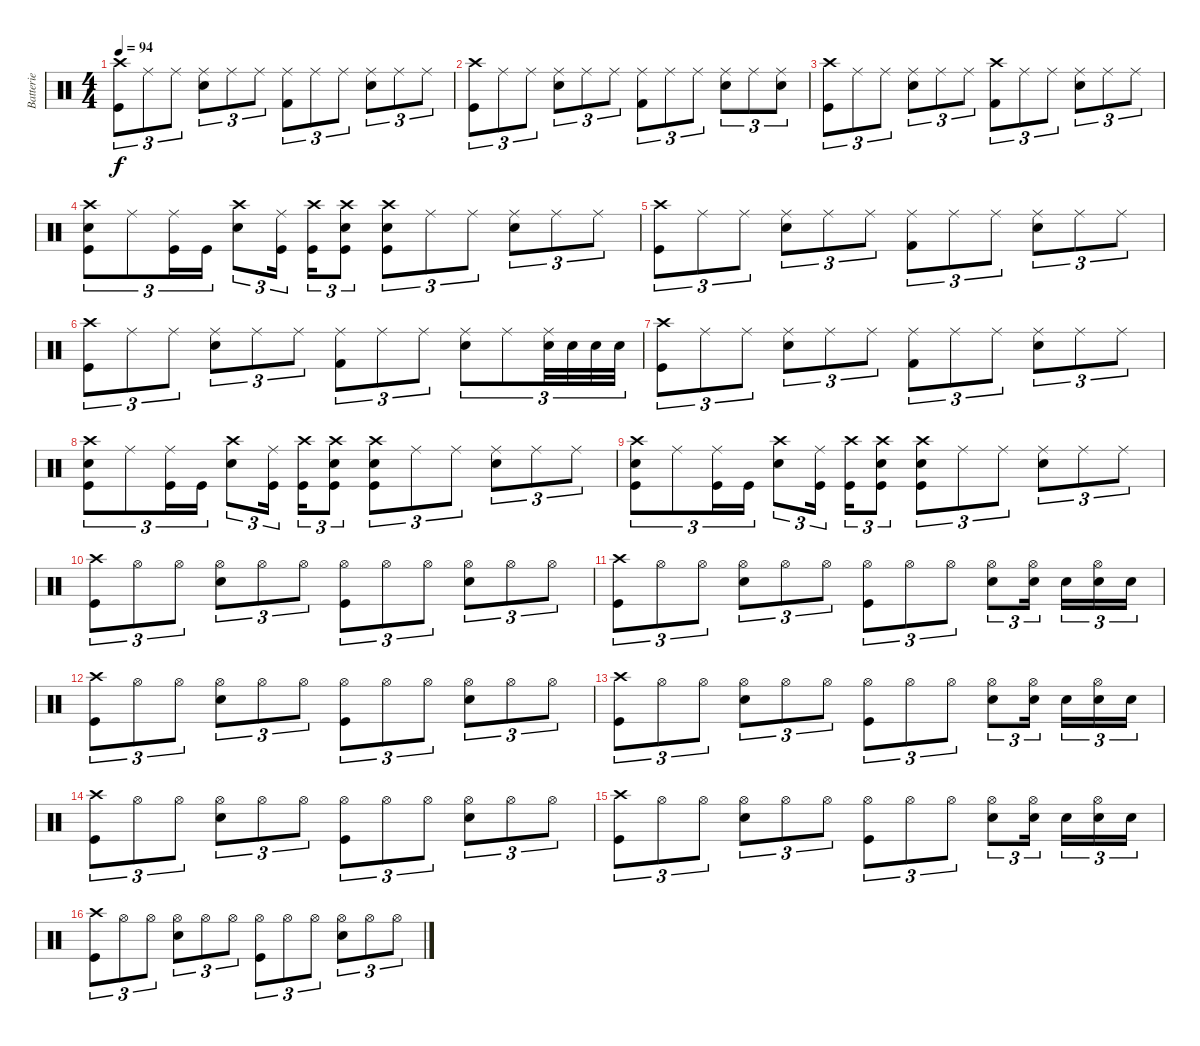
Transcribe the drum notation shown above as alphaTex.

\track ("Batterie" "Batterie") {instrument percussion}
\staff {score}
\articulation defaults
\ts (4 4)
\tempo 94
\clef neutral
\ks c
("Crash high (hit)" "Kick (hit)").8{tu (3 2) dy f} "Ride (middle)".8{tu (3 2)} "Ride (middle)".8{tu (3 2)} ("Ride (middle)" "Snare (hit) 2").8{tu (3 2)} "Ride (middle)".8{tu (3 2)} "Ride (middle)".8{tu (3 2)} ("Ride (middle)" "Kick (hit) 2").8{tu (3 2)} "Ride (middle)".8{tu (3 2)} "Ride (middle)".8{tu (3 2)} ("Ride (middle)" "Snare (hit) 2").8{tu (3 2)} "Ride (middle)".8{tu (3 2)} "Ride (middle)".8{tu (3 2)} |
("Crash high (hit)" "Kick (hit)").8{tu (3 2)} "Ride (middle)".8{tu (3 2)} "Ride (middle)".8{tu (3 2)} ("Ride (middle)" "Snare (hit) 2").8{tu (3 2)} "Ride (middle)".8{tu (3 2)} "Ride (middle)".8{tu (3 2)} ("Ride (middle)" "Kick (hit) 2").8{tu (3 2)} "Ride (middle)".8{tu (3 2)} "Ride (middle)".8{tu (3 2)} ("Ride (middle)" "Snare (hit) 2").8{tu (3 2)} "Ride (middle)".8{tu (3 2)} ("Ride (middle)" "Snare (hit) 2").8{tu (3 2)} |
("Crash high (hit)" "Kick (hit)").8{tu (3 2)} "Ride (middle)".8{tu (3 2)} "Ride (middle)".8{tu (3 2)} ("Ride (middle)" "Snare (hit) 2").8{tu (3 2)} "Ride (middle)".8{tu (3 2)} "Ride (middle)".8{tu (3 2)} ("Crash high (hit)" "Kick (hit) 2").8{tu (3 2)} "Ride (middle)".8{tu (3 2)} "Ride (middle)".8{tu (3 2)} ("Ride (middle)" "Snare (hit) 2").8{tu (3 2)} "Ride (middle)".8{tu (3 2)} "Ride (middle)".8{tu (3 2)} |
("Crash high (hit)" "Snare (hit) 2" "Kick (hit)").8{tu (3 2)} "Ride (middle)".8{tu (3 2)} ("Ride (middle)" "Kick (hit)").16{tu (3 2)} "Kick (hit)".16{tu (3 2)} ("Crash high (hit)" "Snare (hit) 2").8{tu (3 2)} ("Ride (middle)" "Kick (hit)").16{tu (3 2)} ("Crash high (hit)" "Kick (hit)").16{tu (3 2)} ("Crash high (hit)" "Snare (hit) 2" "Kick (hit)").8{tu (3 2)} ("Crash high (hit)" "Snare (hit) 2" "Kick (hit)").8{tu (3 2)} "Ride (middle)".8{tu (3 2)} "Ride (middle)".8{tu (3 2)} ("Ride (middle)" "Snare (hit) 2").8{tu (3 2)} "Ride (middle)".8{tu (3 2)} "Ride (middle)".8{tu (3 2)} |
("Crash high (hit)" "Kick (hit)").8{tu (3 2)} "Ride (middle)".8{tu (3 2)} "Ride (middle)".8{tu (3 2)} ("Ride (middle)" "Snare (hit) 2").8{tu (3 2)} "Ride (middle)".8{tu (3 2)} "Ride (middle)".8{tu (3 2)} ("Ride (middle)" "Kick (hit) 2").8{tu (3 2)} "Ride (middle)".8{tu (3 2)} "Ride (middle)".8{tu (3 2)} ("Ride (middle)" "Snare (hit) 2").8{tu (3 2)} "Ride (middle)".8{tu (3 2)} "Ride (middle)".8{tu (3 2)} |
("Crash high (hit)" "Kick (hit)").8{tu (3 2)} "Ride (middle)".8{tu (3 2)} "Ride (middle)".8{tu (3 2)} ("Ride (middle)" "Snare (hit) 2").8{tu (3 2)} "Ride (middle)".8{tu (3 2)} "Ride (middle)".8{tu (3 2)} ("Ride (middle)" "Kick (hit) 2").8{tu (3 2)} "Ride (middle)".8{tu (3 2)} "Ride (middle)".8{tu (3 2)} ("Ride (middle)" "Snare (hit) 2").8{tu (3 2)} "Ride (middle)".8{tu (3 2)} ("Ride (middle)" "Snare (hit) 2").32{tu (3 2)} "Snare (hit) 2".32{tu (3 2)} "Snare (hit) 2".32{tu (3 2)} "Snare (hit) 2".32{tu (3 2)} |
("Crash high (hit)" "Kick (hit)").8{tu (3 2)} "Ride (middle)".8{tu (3 2)} "Ride (middle)".8{tu (3 2)} ("Ride (middle)" "Snare (hit) 2").8{tu (3 2)} "Ride (middle)".8{tu (3 2)} "Ride (middle)".8{tu (3 2)} ("Ride (middle)" "Kick (hit) 2").8{tu (3 2)} "Ride (middle)".8{tu (3 2)} "Ride (middle)".8{tu (3 2)} ("Ride (middle)" "Snare (hit) 2").8{tu (3 2)} "Ride (middle)".8{tu (3 2)} "Ride (middle)".8{tu (3 2)} |
("Crash high (hit)" "Snare (hit) 2" "Kick (hit)").8{tu (3 2)} "Ride (middle)".8{tu (3 2)} ("Ride (middle)" "Kick (hit)").16{tu (3 2)} "Kick (hit)".16{tu (3 2)} ("Crash high (hit)" "Snare (hit) 2").8{tu (3 2)} ("Ride (middle)" "Kick (hit)").16{tu (3 2)} ("Crash high (hit)" "Kick (hit)").16{tu (3 2)} ("Crash high (hit)" "Snare (hit) 2" "Kick (hit)").8{tu (3 2)} ("Crash high (hit)" "Snare (hit) 2" "Kick (hit)").8{tu (3 2)} "Ride (middle)".8{tu (3 2)} "Ride (middle)".8{tu (3 2)} ("Ride (middle)" "Snare (hit) 2").8{tu (3 2)} "Ride (middle)".8{tu (3 2)} "Ride (middle)".8{tu (3 2)} |
("Crash high (hit)" "Snare (hit) 2" "Kick (hit)").8{tu (3 2)} "Ride (middle)".8{tu (3 2)} ("Ride (middle)" "Kick (hit)").16{tu (3 2)} "Kick (hit)".16{tu (3 2)} ("Crash high (hit)" "Snare (hit) 2").8{tu (3 2)} ("Ride (middle)" "Kick (hit)").16{tu (3 2)} ("Crash high (hit)" "Kick (hit)").16{tu (3 2)} ("Crash high (hit)" "Snare (hit) 2" "Kick (hit)").8{tu (3 2)} ("Crash high (hit)" "Snare (hit) 2" "Kick (hit)").8{tu (3 2)} "Ride (middle)".8{tu (3 2)} "Ride (middle)".8{tu (3 2)} ("Ride (middle)" "Snare (hit) 2").8{tu (3 2)} "Ride (middle)".8{tu (3 2)} "Ride (middle)".8{tu (3 2)} |
("Crash high (hit)" "Kick (hit)").8{tu (3 2)} "Hi-Hat (open)".8{tu (3 2)} "Hi-Hat (open)".8{tu (3 2)} ("Hi-Hat (open)" "Snare (hit) 2").8{tu (3 2)} "Hi-Hat (open)".8{tu (3 2)} "Hi-Hat (open)".8{tu (3 2)} ("Hi-Hat (open)" "Kick (hit)").8{tu (3 2)} "Hi-Hat (open)".8{tu (3 2)} "Hi-Hat (open)".8{tu (3 2)} ("Hi-Hat (open)" "Snare (hit) 2").8{tu (3 2)} "Hi-Hat (open)".8{tu (3 2)} "Hi-Hat (open)".8{tu (3 2)} |
("Crash high (hit)" "Kick (hit)").8{tu (3 2)} "Hi-Hat (open)".8{tu (3 2)} "Hi-Hat (open)".8{tu (3 2)} ("Hi-Hat (open)" "Snare (hit) 2").8{tu (3 2)} "Hi-Hat (open)".8{tu (3 2)} "Hi-Hat (open)".8{tu (3 2)} ("Hi-Hat (open)" "Kick (hit)").8{tu (3 2)} "Hi-Hat (open)".8{tu (3 2)} "Hi-Hat (open)".8{tu (3 2)} ("Hi-Hat (open)" "Snare (hit) 2").8{tu (3 2)} ("Hi-Hat (open)" "Snare (hit) 2").16{tu (3 2)} "Snare (hit) 2".16{tu (3 2)} ("Hi-Hat (open)" "Snare (hit) 2").16{tu (3 2)} "Snare (hit) 2".16{tu (3 2)} |
("Crash high (hit)" "Kick (hit)").8{tu (3 2)} "Hi-Hat (open)".8{tu (3 2)} "Hi-Hat (open)".8{tu (3 2)} ("Hi-Hat (open)" "Snare (hit) 2").8{tu (3 2)} "Hi-Hat (open)".8{tu (3 2)} "Hi-Hat (open)".8{tu (3 2)} ("Hi-Hat (open)" "Kick (hit)").8{tu (3 2)} "Hi-Hat (open)".8{tu (3 2)} "Hi-Hat (open)".8{tu (3 2)} ("Hi-Hat (open)" "Snare (hit) 2").8{tu (3 2)} "Hi-Hat (open)".8{tu (3 2)} "Hi-Hat (open)".8{tu (3 2)} |
("Crash high (hit)" "Kick (hit)").8{tu (3 2)} "Hi-Hat (open)".8{tu (3 2)} "Hi-Hat (open)".8{tu (3 2)} ("Hi-Hat (open)" "Snare (hit) 2").8{tu (3 2)} "Hi-Hat (open)".8{tu (3 2)} "Hi-Hat (open)".8{tu (3 2)} ("Hi-Hat (open)" "Kick (hit)").8{tu (3 2)} "Hi-Hat (open)".8{tu (3 2)} "Hi-Hat (open)".8{tu (3 2)} ("Hi-Hat (open)" "Snare (hit) 2").8{tu (3 2)} ("Hi-Hat (open)" "Snare (hit) 2").16{tu (3 2)} "Snare (hit) 2".16{tu (3 2)} ("Hi-Hat (open)" "Snare (hit) 2").16{tu (3 2)} "Snare (hit) 2".16{tu (3 2)} |
("Crash high (hit)" "Kick (hit)").8{tu (3 2)} "Hi-Hat (open)".8{tu (3 2)} "Hi-Hat (open)".8{tu (3 2)} ("Hi-Hat (open)" "Snare (hit) 2").8{tu (3 2)} "Hi-Hat (open)".8{tu (3 2)} "Hi-Hat (open)".8{tu (3 2)} ("Hi-Hat (open)" "Kick (hit)").8{tu (3 2)} "Hi-Hat (open)".8{tu (3 2)} "Hi-Hat (open)".8{tu (3 2)} ("Hi-Hat (open)" "Snare (hit) 2").8{tu (3 2)} "Hi-Hat (open)".8{tu (3 2)} "Hi-Hat (open)".8{tu (3 2)} |
("Crash high (hit)" "Kick (hit)").8{tu (3 2)} "Hi-Hat (open)".8{tu (3 2)} "Hi-Hat (open)".8{tu (3 2)} ("Hi-Hat (open)" "Snare (hit) 2").8{tu (3 2)} "Hi-Hat (open)".8{tu (3 2)} "Hi-Hat (open)".8{tu (3 2)} ("Hi-Hat (open)" "Kick (hit)").8{tu (3 2)} "Hi-Hat (open)".8{tu (3 2)} "Hi-Hat (open)".8{tu (3 2)} ("Hi-Hat (open)" "Snare (hit) 2").8{tu (3 2)} ("Hi-Hat (open)" "Snare (hit) 2").16{tu (3 2)} "Snare (hit) 2".16{tu (3 2)} ("Hi-Hat (open)" "Snare (hit) 2").16{tu (3 2)} "Snare (hit) 2".16{tu (3 2)} |
("Crash high (hit)" "Kick (hit)").8{tu (3 2)} "Hi-Hat (open)".8{tu (3 2)} "Hi-Hat (open)".8{tu (3 2)} ("Hi-Hat (open)" "Snare (hit) 2").8{tu (3 2)} "Hi-Hat (open)".8{tu (3 2)} "Hi-Hat (open)".8{tu (3 2)} ("Hi-Hat (open)" "Kick (hit)").8{tu (3 2)} "Hi-Hat (open)".8{tu (3 2)} "Hi-Hat (open)".8{tu (3 2)} ("Hi-Hat (open)" "Snare (hit) 2").8{tu (3 2)} "Hi-Hat (open)".8{tu (3 2)} "Hi-Hat (open)".8{tu (3 2)}
